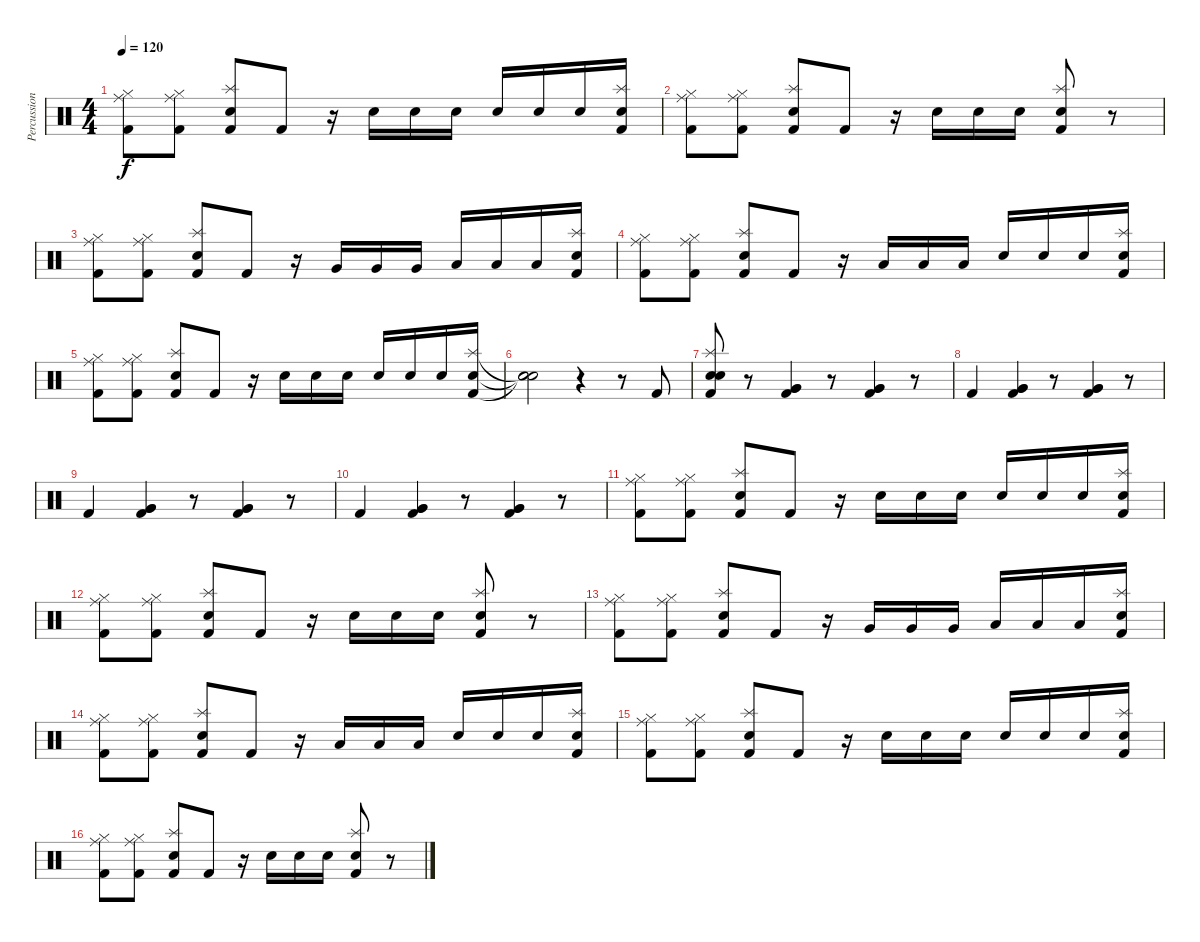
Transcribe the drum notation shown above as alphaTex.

\track ("Percussions" "Percussion") {instrument percussion}
\staff {score}
\articulation defaults
\ts (4 4)
\tempo 120
\clef neutral
\ks c
("Ride (middle)" "Hi-Hat (closed)" "Kick (hit) 2").8{dy f} ("Ride (middle)" "Hi-Hat (closed)" "Kick (hit) 2").8 ("Splash (hit)" "Electric Snare (hit)" "Kick (hit) 2").8 "Kick (hit) 2".8 r.16 "Electric Snare (hit)".16 "Electric Snare (hit)".16 "Electric Snare (hit)".16 "Electric Snare (hit)".16 "Electric Snare (hit)".16 "Electric Snare (hit)".16 ("Splash (hit)" "Electric Snare (hit)" "Kick (hit) 2").16 |
("Ride (middle)" "Hi-Hat (closed)" "Kick (hit) 2").8 ("Ride (middle)" "Hi-Hat (closed)" "Kick (hit) 2").8 ("Splash (hit)" "Electric Snare (hit)" "Kick (hit) 2").8 "Kick (hit) 2".8 r.16 "Electric Snare (hit)".16 "Electric Snare (hit)".16 "Electric Snare (hit)".16 ("Splash (hit)" "Electric Snare (hit)" "Kick (hit) 2").8 r.8 |
("Ride (middle)" "Hi-Hat (closed)" "Kick (hit) 2").8 ("Ride (middle)" "Hi-Hat (closed)" "Kick (hit) 2").8 ("Splash (hit)" "Electric Snare (hit)" "Kick (hit) 2").8 "Kick (hit) 2".8 r.16 "Very Low Tom (hit)".16 "Very Low Tom (hit)".16 "Very Low Tom (hit)".16 "Low Floor Tom (hit)".16 "Low Floor Tom (hit)".16 "Low Floor Tom (hit)".16 ("Splash (hit)" "Electric Snare (hit)" "Kick (hit) 2").16 |
("Ride (middle)" "Hi-Hat (closed)" "Kick (hit) 2").8 ("Ride (middle)" "Hi-Hat (closed)" "Kick (hit) 2").8 ("Splash (hit)" "Electric Snare (hit)" "Kick (hit) 2").8 "Kick (hit) 2".8 r.16 "Low Floor Tom (hit)".16 "Low Floor Tom (hit)".16 "Low Floor Tom (hit)".16 "Electric Snare (hit)".16 "Electric Snare (hit)".16 "Electric Snare (hit)".16 ("Splash (hit)" "Electric Snare (hit)" "Kick (hit) 2").16 |
("Ride (middle)" "Hi-Hat (closed)" "Kick (hit) 2").8 ("Ride (middle)" "Hi-Hat (closed)" "Kick (hit) 2").8 ("Splash (hit)" "Electric Snare (hit)" "Kick (hit) 2").8 "Kick (hit) 2".8 r.16 "Electric Snare (hit)".16 "Electric Snare (hit)".16 "Electric Snare (hit)".16 "Electric Snare (hit)".16 "Electric Snare (hit)".16 "Electric Snare (hit)".16 ("Splash (hit)" "Electric Snare (hit)" "Kick (hit) 2").16 |
("Snare (hit)"{t} "Snare (hit)"{t} "Snare (hit)"{t}).2 r.4 r.8 "Kick (hit) 2".8 |
("Splash (hit)" "Electric Snare (hit)" "Electric Snare (hit)" "Kick (hit) 2").8 r.8 ("Very Low Tom (hit)" "Very Low Tom (hit)" "Kick (hit) 2").4 r.8 ("Very Low Tom (hit)" "Very Low Tom (hit)" "Kick (hit) 2").4 r.8 |
"Kick (hit) 2".4 ("Very Low Tom (hit)" "Very Low Tom (hit)" "Kick (hit) 2").4 r.8 ("Very Low Tom (hit)" "Very Low Tom (hit)" "Kick (hit) 2").4 r.8 |
"Kick (hit) 2".4 ("Very Low Tom (hit)" "Very Low Tom (hit)" "Kick (hit) 2").4 r.8 ("Very Low Tom (hit)" "Very Low Tom (hit)" "Kick (hit) 2").4 r.8 |
"Kick (hit) 2".4 ("Very Low Tom (hit)" "Very Low Tom (hit)" "Kick (hit) 2").4 r.8 ("Very Low Tom (hit)" "Very Low Tom (hit)" "Kick (hit) 2").4 r.8 |
("Ride (middle)" "Hi-Hat (closed)" "Kick (hit) 2").8 ("Ride (middle)" "Hi-Hat (closed)" "Kick (hit) 2").8 ("Splash (hit)" "Electric Snare (hit)" "Kick (hit) 2").8 "Kick (hit) 2".8 r.16 "Electric Snare (hit)".16 "Electric Snare (hit)".16 "Electric Snare (hit)".16 "Electric Snare (hit)".16 "Electric Snare (hit)".16 "Electric Snare (hit)".16 ("Splash (hit)" "Electric Snare (hit)" "Kick (hit) 2").16 |
("Ride (middle)" "Hi-Hat (closed)" "Kick (hit) 2").8 ("Ride (middle)" "Hi-Hat (closed)" "Kick (hit) 2").8 ("Splash (hit)" "Electric Snare (hit)" "Kick (hit) 2").8 "Kick (hit) 2".8 r.16 "Electric Snare (hit)".16 "Electric Snare (hit)".16 "Electric Snare (hit)".16 ("Splash (hit)" "Electric Snare (hit)" "Kick (hit) 2").8 r.8 |
("Ride (middle)" "Hi-Hat (closed)" "Kick (hit) 2").8 ("Ride (middle)" "Hi-Hat (closed)" "Kick (hit) 2").8 ("Splash (hit)" "Electric Snare (hit)" "Kick (hit) 2").8 "Kick (hit) 2".8 r.16 "Very Low Tom (hit)".16 "Very Low Tom (hit)".16 "Very Low Tom (hit)".16 "Low Floor Tom (hit)".16 "Low Floor Tom (hit)".16 "Low Floor Tom (hit)".16 ("Splash (hit)" "Electric Snare (hit)" "Kick (hit) 2").16 |
("Ride (middle)" "Hi-Hat (closed)" "Kick (hit) 2").8 ("Ride (middle)" "Hi-Hat (closed)" "Kick (hit) 2").8 ("Splash (hit)" "Electric Snare (hit)" "Kick (hit) 2").8 "Kick (hit) 2".8 r.16 "Low Floor Tom (hit)".16 "Low Floor Tom (hit)".16 "Low Floor Tom (hit)".16 "Electric Snare (hit)".16 "Electric Snare (hit)".16 "Electric Snare (hit)".16 ("Splash (hit)" "Electric Snare (hit)" "Kick (hit) 2").16 |
("Ride (middle)" "Hi-Hat (closed)" "Kick (hit) 2").8 ("Ride (middle)" "Hi-Hat (closed)" "Kick (hit) 2").8 ("Splash (hit)" "Electric Snare (hit)" "Kick (hit) 2").8 "Kick (hit) 2".8 r.16 "Electric Snare (hit)".16 "Electric Snare (hit)".16 "Electric Snare (hit)".16 "Electric Snare (hit)".16 "Electric Snare (hit)".16 "Electric Snare (hit)".16 ("Splash (hit)" "Electric Snare (hit)" "Kick (hit) 2").16 |
("Ride (middle)" "Hi-Hat (closed)" "Kick (hit) 2").8 ("Ride (middle)" "Hi-Hat (closed)" "Kick (hit) 2").8 ("Splash (hit)" "Electric Snare (hit)" "Kick (hit) 2").8 "Kick (hit) 2".8 r.16 "Electric Snare (hit)".16 "Electric Snare (hit)".16 "Electric Snare (hit)".16 ("Splash (hit)" "Electric Snare (hit)" "Kick (hit) 2").8 r.8
